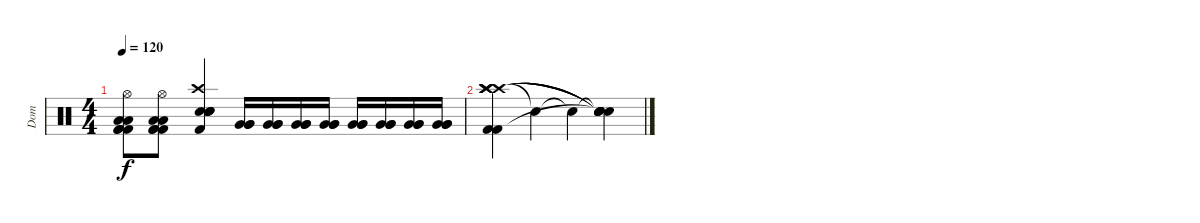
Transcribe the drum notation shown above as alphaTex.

\track ("Dom" "Dom") {instrument percussion}
\staff {score}
\articulation defaults
\ts (4 4)
\tempo 120
\clef neutral
\ks c
("Hi-Hat (open)" "Low Floor Tom (hit)" "Low Floor Tom (hit)" "Kick (hit) 2" "Kick (hit) 2" "Kick (hit) 2").8{dy f} ("Hi-Hat (open)" "Low Floor Tom (hit)" "Low Floor Tom (hit)" "Kick (hit) 2" "Kick (hit) 2" "Kick (hit) 2").8 ("Crash high (hit)" "Electric Snare (hit)" "Electric Snare (hit)" "Electric Snare (hit)" "Electric Snare (hit)" "Kick (hit) 2").4 ("Very Low Tom (hit)" "Very Low Tom (hit)" "Very Low Tom (hit)").16 ("Very Low Tom (hit)" "Very Low Tom (hit)" "Very Low Tom (hit)").16 ("Very Low Tom (hit)" "Very Low Tom (hit)" "Very Low Tom (hit)").16 ("Very Low Tom (hit)" "Very Low Tom (hit)" "Very Low Tom (hit)").16 ("Very Low Tom (hit)" "Very Low Tom (hit)" "Very Low Tom (hit)").16 ("Very Low Tom (hit)" "Very Low Tom (hit)" "Very Low Tom (hit)").16 ("Very Low Tom (hit)" "Very Low Tom (hit)" "Very Low Tom (hit)").16 ("Very Low Tom (hit)" "Very Low Tom (hit)" "Very Low Tom (hit)").16 |
("Crash high (hit)" "Crash high (hit)" "Crash high (hit)" "Crash high (hit)" "Kick (hit) 2" "Kick (hit) 2").4 "Snare (hit)"{t}.4 "Snare (hit)"{t}.4 ("Snare (hit)"{t} "Snare (hit)"{t} "Snare (hit)"{t} "Snare (hit)"{t} "Snare (hit)"{t}).4
